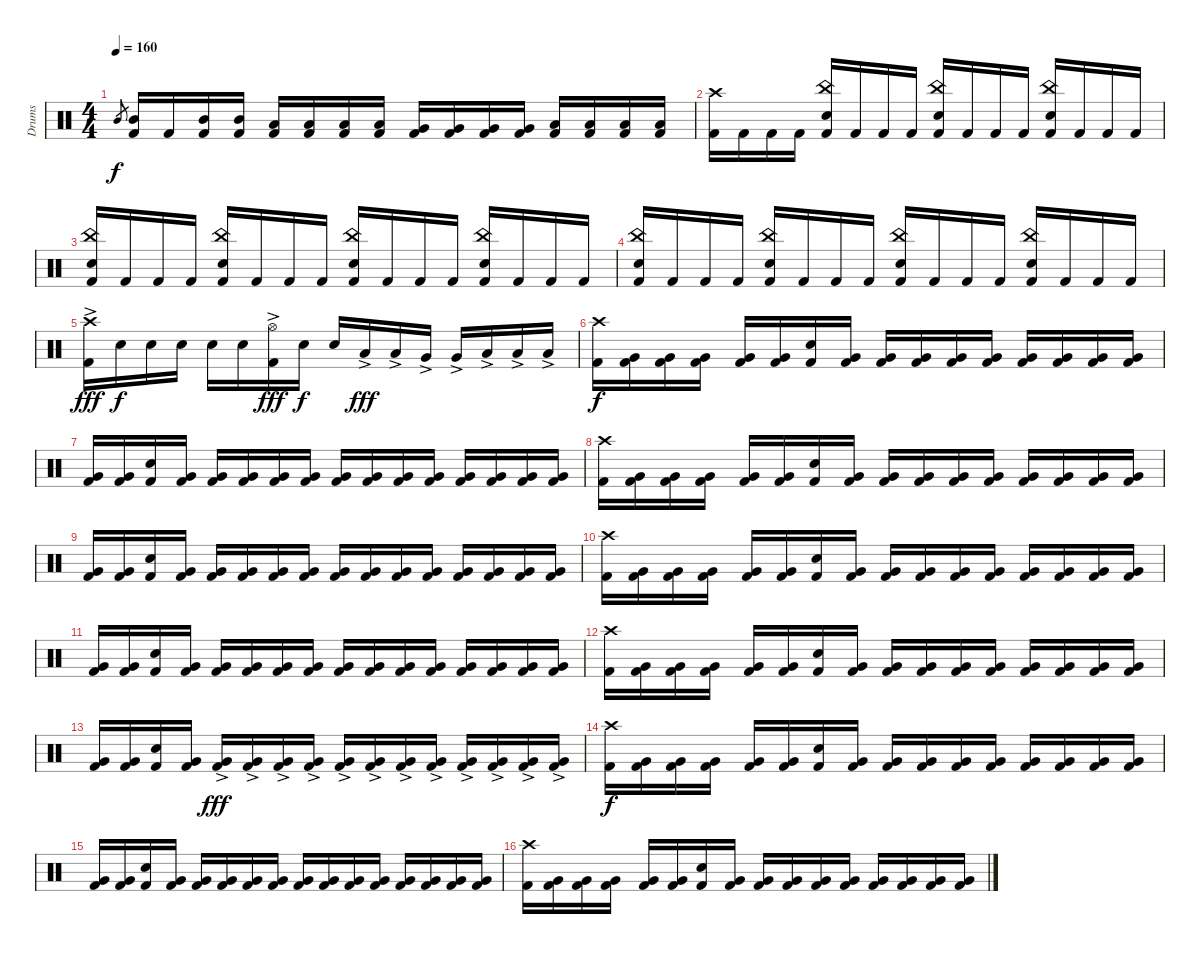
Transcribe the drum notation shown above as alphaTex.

\track ("Drums" "Drums") {instrument percussion}
\staff {score}
\articulation defaults
\ts (4 4)
\tempo 160
\clef neutral
\ks c "Mid Tom (hit)".8{gr dy f}
("Mid Tom (hit)" "Kick (hit) 2").16 "Kick (hit) 2".16 ("Mid Tom (hit)" "Kick (hit) 2").16 ("Mid Tom (hit)" "Kick (hit) 2").16 ("Low Tom (hit)" "Kick (hit) 2").16 ("Low Tom (hit)" "Kick (hit) 2").16 ("Low Tom (hit)" "Kick (hit) 2").16 ("Low Tom (hit)" "Kick (hit) 2").16 ("Very Low Tom (hit)" "Kick (hit) 2").16 ("Very Low Tom (hit)" "Kick (hit) 2").16 ("Very Low Tom (hit)" "Kick (hit) 2").16 ("Very Low Tom (hit)" "Kick (hit) 2").16 ("Low Floor Tom (hit)" "Kick (hit) 2").16 ("Low Floor Tom (hit)" "Kick (hit) 2").16 ("Low Floor Tom (hit)" "Kick (hit) 2").16 ("Low Floor Tom (hit)" "Kick (hit) 2").16 |
("Crash high (hit)" "Kick (hit) 2").16 "Kick (hit) 2".16 "Kick (hit) 2".16 "Kick (hit) 2".16 ("China (hit)" "Snare (hit) 2" "Kick (hit) 2").16 "Kick (hit) 2".16 "Kick (hit) 2".16 "Kick (hit) 2".16 ("China (hit)" "Snare (hit) 2" "Kick (hit) 2").16 "Kick (hit) 2".16 "Kick (hit) 2".16 "Kick (hit) 2".16 ("China (hit)" "Snare (hit) 2" "Kick (hit) 2").16 "Kick (hit) 2".16 "Kick (hit) 2".16 "Kick (hit) 2".16 |
("China (hit)" "Snare (hit) 2" "Kick (hit) 2").16 "Kick (hit) 2".16 "Kick (hit) 2".16 "Kick (hit) 2".16 ("China (hit)" "Snare (hit) 2" "Kick (hit) 2").16 "Kick (hit) 2".16 "Kick (hit) 2".16 "Kick (hit) 2".16 ("China (hit)" "Snare (hit) 2" "Kick (hit) 2").16 "Kick (hit) 2".16 "Kick (hit) 2".16 "Kick (hit) 2".16 ("China (hit)" "Snare (hit) 2" "Kick (hit) 2").16 "Kick (hit) 2".16 "Kick (hit) 2".16 "Kick (hit) 2".16 |
("China (hit)" "Snare (hit) 2" "Kick (hit) 2").16 "Kick (hit) 2".16 "Kick (hit) 2".16 "Kick (hit) 2".16 ("China (hit)" "Snare (hit) 2" "Kick (hit) 2").16 "Kick (hit) 2".16 "Kick (hit) 2".16 "Kick (hit) 2".16 ("China (hit)" "Snare (hit) 2" "Kick (hit) 2").16 "Kick (hit) 2".16 "Kick (hit) 2".16 "Kick (hit) 2".16 ("China (hit)" "Snare (hit) 2" "Kick (hit) 2").16 "Kick (hit) 2".16 "Kick (hit) 2".16 "Kick (hit) 2".16 |
("Crash high (hit)" "Kick (hit) 2"{ac}).16{dy fff} "Snare (hit) 2".16{dy f} "Snare (hit) 2".16 "Snare (hit) 2".16 "Snare (hit) 2".16 "Snare (hit) 2".16 ("Hi-Hat (open)"{ac} "Kick (hit) 2"{ac}).16{dy fff} "Snare (hit) 2".16{dy f} "Snare (hit) 2".16 "Low Tom (hit)"{ac}.16{dy fff} "Low Tom (hit)"{ac}.16 "Very Low Tom (hit)"{ac}.16 "Very Low Tom (hit)"{ac}.16 "Low Floor Tom (hit)"{ac}.16 "Low Floor Tom (hit)"{ac}.16 "Low Floor Tom (hit)"{ac}.16 |
("Crash high (hit)" "Kick (hit) 2").16{dy f} ("Very Low Tom (hit)" "Kick (hit) 2").16 ("Very Low Tom (hit)" "Kick (hit) 2").16 ("Very Low Tom (hit)" "Kick (hit) 2").16 ("Very Low Tom (hit)" "Kick (hit) 2").16 ("Very Low Tom (hit)" "Kick (hit) 2").16 ("Snare (hit) 2" "Kick (hit) 2").16 ("Very Low Tom (hit)" "Kick (hit) 2").16 ("Very Low Tom (hit)" "Kick (hit) 2").16 ("Very Low Tom (hit)" "Kick (hit) 2").16 ("Very Low Tom (hit)" "Kick (hit) 2").16 ("Very Low Tom (hit)" "Kick (hit) 2").16 ("Very Low Tom (hit)" "Kick (hit) 2").16 ("Very Low Tom (hit)" "Kick (hit) 2").16 ("Very Low Tom (hit)" "Kick (hit) 2").16 ("Very Low Tom (hit)" "Kick (hit) 2").16 |
("Very Low Tom (hit)" "Kick (hit) 2").16 ("Very Low Tom (hit)" "Kick (hit) 2").16 ("Snare (hit) 2" "Kick (hit) 2").16 ("Very Low Tom (hit)" "Kick (hit) 2").16 ("Very Low Tom (hit)" "Kick (hit) 2").16 ("Very Low Tom (hit)" "Kick (hit) 2").16 ("Very Low Tom (hit)" "Kick (hit) 2").16 ("Very Low Tom (hit)" "Kick (hit) 2").16 ("Very Low Tom (hit)" "Kick (hit) 2").16 ("Very Low Tom (hit)" "Kick (hit) 2").16 ("Very Low Tom (hit)" "Kick (hit) 2").16 ("Very Low Tom (hit)" "Kick (hit) 2").16 ("Very Low Tom (hit)" "Kick (hit) 2").16 ("Very Low Tom (hit)" "Kick (hit) 2").16 ("Very Low Tom (hit)" "Kick (hit) 2").16 ("Very Low Tom (hit)" "Kick (hit) 2").16 |
("Crash high (hit)" "Kick (hit) 2").16{volume 14} ("Very Low Tom (hit)" "Kick (hit) 2").16 ("Very Low Tom (hit)" "Kick (hit) 2").16 ("Very Low Tom (hit)" "Kick (hit) 2").16 ("Very Low Tom (hit)" "Kick (hit) 2").16 ("Very Low Tom (hit)" "Kick (hit) 2").16 ("Snare (hit) 2" "Kick (hit) 2").16 ("Very Low Tom (hit)" "Kick (hit) 2").16 ("Very Low Tom (hit)" "Kick (hit) 2").16 ("Very Low Tom (hit)" "Kick (hit) 2").16 ("Very Low Tom (hit)" "Kick (hit) 2").16 ("Very Low Tom (hit)" "Kick (hit) 2").16 ("Very Low Tom (hit)" "Kick (hit) 2").16 ("Very Low Tom (hit)" "Kick (hit) 2").16 ("Very Low Tom (hit)" "Kick (hit) 2").16 ("Very Low Tom (hit)" "Kick (hit) 2").16 |
("Very Low Tom (hit)" "Kick (hit) 2").16 ("Very Low Tom (hit)" "Kick (hit) 2").16 ("Snare (hit) 2" "Kick (hit) 2").16 ("Very Low Tom (hit)" "Kick (hit) 2").16 ("Very Low Tom (hit)" "Kick (hit) 2").16 ("Very Low Tom (hit)" "Kick (hit) 2").16 ("Very Low Tom (hit)" "Kick (hit) 2").16 ("Very Low Tom (hit)" "Kick (hit) 2").16 ("Very Low Tom (hit)" "Kick (hit) 2").16 ("Very Low Tom (hit)" "Kick (hit) 2").16 ("Very Low Tom (hit)" "Kick (hit) 2").16 ("Very Low Tom (hit)" "Kick (hit) 2").16 ("Very Low Tom (hit)" "Kick (hit) 2").16 ("Very Low Tom (hit)" "Kick (hit) 2").16 ("Very Low Tom (hit)" "Kick (hit) 2").16 ("Very Low Tom (hit)" "Kick (hit) 2").16 |
("Crash high (hit)" "Kick (hit) 2").16{volume 12} ("Very Low Tom (hit)" "Kick (hit) 2").16 ("Very Low Tom (hit)" "Kick (hit) 2").16 ("Very Low Tom (hit)" "Kick (hit) 2").16 ("Very Low Tom (hit)" "Kick (hit) 2").16 ("Very Low Tom (hit)" "Kick (hit) 2").16 ("Snare (hit) 2" "Kick (hit) 2").16 ("Very Low Tom (hit)" "Kick (hit) 2").16 ("Very Low Tom (hit)" "Kick (hit) 2").16 ("Very Low Tom (hit)" "Kick (hit) 2").16 ("Very Low Tom (hit)" "Kick (hit) 2").16 ("Very Low Tom (hit)" "Kick (hit) 2").16 ("Very Low Tom (hit)" "Kick (hit) 2").16 ("Very Low Tom (hit)" "Kick (hit) 2").16 ("Very Low Tom (hit)" "Kick (hit) 2").16 ("Very Low Tom (hit)" "Kick (hit) 2").16 |
("Very Low Tom (hit)" "Kick (hit) 2").16 ("Very Low Tom (hit)" "Kick (hit) 2").16 ("Snare (hit) 2" "Kick (hit) 2").16 ("Very Low Tom (hit)" "Kick (hit) 2").16 ("Very Low Tom (hit)" "Kick (hit) 2").16 ("Very Low Tom (hit)" "Kick (hit) 2").16 ("Very Low Tom (hit)" "Kick (hit) 2").16 ("Very Low Tom (hit)" "Kick (hit) 2").16 ("Very Low Tom (hit)" "Kick (hit) 2").16 ("Very Low Tom (hit)" "Kick (hit) 2").16 ("Very Low Tom (hit)" "Kick (hit) 2").16 ("Very Low Tom (hit)" "Kick (hit) 2").16 ("Very Low Tom (hit)" "Kick (hit) 2").16 ("Very Low Tom (hit)" "Kick (hit) 2").16 ("Very Low Tom (hit)" "Kick (hit) 2").16 ("Very Low Tom (hit)" "Kick (hit) 2").16 |
("Crash high (hit)" "Kick (hit) 2").16{volume 10} ("Very Low Tom (hit)" "Kick (hit) 2").16 ("Very Low Tom (hit)" "Kick (hit) 2").16 ("Very Low Tom (hit)" "Kick (hit) 2").16 ("Very Low Tom (hit)" "Kick (hit) 2").16 ("Very Low Tom (hit)" "Kick (hit) 2").16 ("Snare (hit) 2" "Kick (hit) 2").16 ("Very Low Tom (hit)" "Kick (hit) 2").16 ("Very Low Tom (hit)" "Kick (hit) 2").16 ("Very Low Tom (hit)" "Kick (hit) 2").16 ("Very Low Tom (hit)" "Kick (hit) 2").16 ("Very Low Tom (hit)" "Kick (hit) 2").16 ("Very Low Tom (hit)" "Kick (hit) 2").16 ("Very Low Tom (hit)" "Kick (hit) 2").16 ("Very Low Tom (hit)" "Kick (hit) 2").16 ("Very Low Tom (hit)" "Kick (hit) 2").16 |
("Very Low Tom (hit)" "Kick (hit) 2").16 ("Very Low Tom (hit)" "Kick (hit) 2").16 ("Snare (hit) 2" "Kick (hit) 2").16 ("Very Low Tom (hit)" "Kick (hit) 2").16 ("Very Low Tom (hit)"{ac} "Kick (hit) 2").16{dy fff} ("Very Low Tom (hit)"{ac} "Kick (hit) 2").16 ("Very Low Tom (hit)"{ac} "Kick (hit) 2").16 ("Very Low Tom (hit)"{ac} "Kick (hit) 2").16 ("Very Low Tom (hit)"{ac} "Kick (hit) 2").16 ("Very Low Tom (hit)"{ac} "Kick (hit) 2").16 ("Very Low Tom (hit)"{ac} "Kick (hit) 2").16 ("Very Low Tom (hit)"{ac} "Kick (hit) 2").16 ("Very Low Tom (hit)"{ac} "Kick (hit) 2").16 ("Very Low Tom (hit)"{ac} "Kick (hit) 2").16 ("Very Low Tom (hit)"{ac} "Kick (hit) 2").16 ("Very Low Tom (hit)"{ac} "Kick (hit) 2").16 |
("Crash high (hit)" "Kick (hit) 2").16{dy f volume 8} ("Very Low Tom (hit)" "Kick (hit) 2").16 ("Very Low Tom (hit)" "Kick (hit) 2").16 ("Very Low Tom (hit)" "Kick (hit) 2").16 ("Very Low Tom (hit)" "Kick (hit) 2").16 ("Very Low Tom (hit)" "Kick (hit) 2").16 ("Snare (hit) 2" "Kick (hit) 2").16 ("Very Low Tom (hit)" "Kick (hit) 2").16 ("Very Low Tom (hit)" "Kick (hit) 2").16 ("Very Low Tom (hit)" "Kick (hit) 2").16 ("Very Low Tom (hit)" "Kick (hit) 2").16 ("Very Low Tom (hit)" "Kick (hit) 2").16 ("Very Low Tom (hit)" "Kick (hit) 2").16 ("Very Low Tom (hit)" "Kick (hit) 2").16 ("Very Low Tom (hit)" "Kick (hit) 2").16 ("Very Low Tom (hit)" "Kick (hit) 2").16 |
("Very Low Tom (hit)" "Kick (hit) 2").16 ("Very Low Tom (hit)" "Kick (hit) 2").16 ("Snare (hit) 2" "Kick (hit) 2").16 ("Very Low Tom (hit)" "Kick (hit) 2").16 ("Very Low Tom (hit)" "Kick (hit) 2").16 ("Very Low Tom (hit)" "Kick (hit) 2").16 ("Very Low Tom (hit)" "Kick (hit) 2").16 ("Very Low Tom (hit)" "Kick (hit) 2").16 ("Very Low Tom (hit)" "Kick (hit) 2").16 ("Very Low Tom (hit)" "Kick (hit) 2").16 ("Very Low Tom (hit)" "Kick (hit) 2").16 ("Very Low Tom (hit)" "Kick (hit) 2").16 ("Very Low Tom (hit)" "Kick (hit) 2").16 ("Very Low Tom (hit)" "Kick (hit) 2").16 ("Very Low Tom (hit)" "Kick (hit) 2").16 ("Very Low Tom (hit)" "Kick (hit) 2").16 |
("Crash high (hit)" "Kick (hit) 2").16{volume 6} ("Very Low Tom (hit)" "Kick (hit) 2").16 ("Very Low Tom (hit)" "Kick (hit) 2").16 ("Very Low Tom (hit)" "Kick (hit) 2").16 ("Very Low Tom (hit)" "Kick (hit) 2").16 ("Very Low Tom (hit)" "Kick (hit) 2").16 ("Snare (hit) 2" "Kick (hit) 2").16 ("Very Low Tom (hit)" "Kick (hit) 2").16 ("Very Low Tom (hit)" "Kick (hit) 2").16 ("Very Low Tom (hit)" "Kick (hit) 2").16 ("Very Low Tom (hit)" "Kick (hit) 2").16 ("Very Low Tom (hit)" "Kick (hit) 2").16 ("Very Low Tom (hit)" "Kick (hit) 2").16 ("Very Low Tom (hit)" "Kick (hit) 2").16 ("Very Low Tom (hit)" "Kick (hit) 2").16 ("Very Low Tom (hit)" "Kick (hit) 2").16
